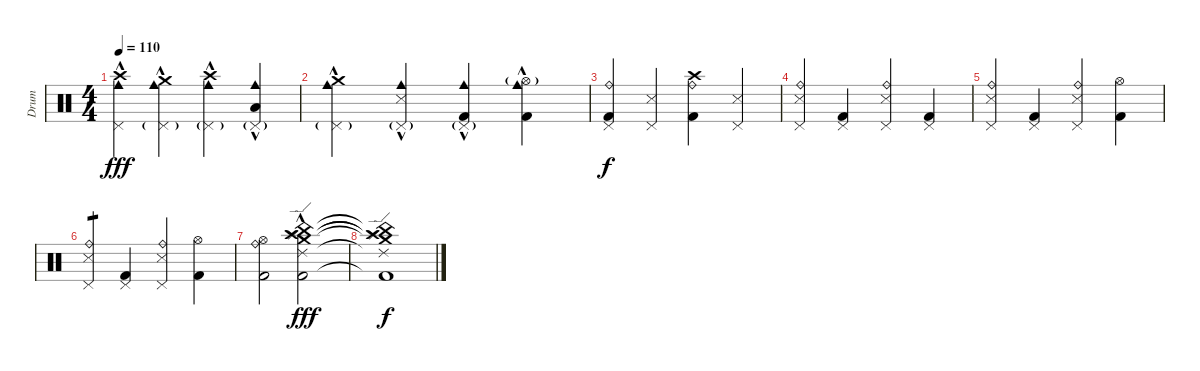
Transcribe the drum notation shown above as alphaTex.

\track ("Drum" "Drum") {instrument percussion}
\staff {score}
\articulation defaults
\ts (4 4)
\tempo 110
\clef neutral
\ks c
("Pedal Hi-Hat (hit)" "Cowbell medium (hit)"{hac} "Crash high (hit)").4{dy fff} ("Pedal Hi-Hat (hit)"{g} "Cowbell medium (hit)"{hac} "Crash medium (hit)").4 ("Pedal Hi-Hat (hit)"{g} "Cowbell medium (hit)"{hac} "Crash high (hit)").4 ("Pedal Hi-Hat (hit)"{g} "Cowbell medium (hit)"{hac} "Low Tom (hit)").4 |
("Pedal Hi-Hat (hit)"{g} "Cowbell medium (hit)"{hac} "Crash medium (hit)").4 ("Pedal Hi-Hat (hit)"{g} "Cowbell medium (hit)"{hac} "Snare (side stick) 3"{hac}).4 ("Pedal Hi-Hat (hit)"{g} "Cowbell medium (hit)"{hac} "Kick (hit) 2").4 ("Hi-Hat (open)"{g} "Cowbell medium (hit)"{hac} "Kick (hit) 2").4 |
("Pedal Hi-Hat (hit)" "Kick (hit) 2" "Ride (bell)").4{dy f} ("Pedal Hi-Hat (hit)" "Snare (side stick) 3").4 ("Crash high (hit)" "Kick (hit) 2" "Ride (bell)").4 ("Pedal Hi-Hat (hit)" "Snare (side stick) 3").4 |
("Pedal Hi-Hat (hit)" "Snare (side stick) 3" "Ride (bell)").4 ("Pedal Hi-Hat (hit)" "Kick (hit) 2").4 ("Pedal Hi-Hat (hit)" "Snare (side stick) 3" "Ride (bell)").4 ("Pedal Hi-Hat (hit)" "Kick (hit) 2").4 |
("Pedal Hi-Hat (hit)" "Snare (side stick) 3" "Ride (bell)").4 ("Pedal Hi-Hat (hit)" "Kick (hit) 2").4 ("Pedal Hi-Hat (hit)" "Snare (side stick) 3" "Ride (bell)").4 ("Hi-Hat (open)" "Kick (hit) 2").4 |
("Pedal Hi-Hat (hit)" "Snare (side stick) 3" "Ride (bell)").4{tp 1} ("Pedal Hi-Hat (hit)" "Kick (hit) 2").4 ("Pedal Hi-Hat (hit)" "Snare (side stick) 3" "Ride (bell)").4 ("Hi-Hat (open)" "Kick (hit) 2").4 |
("Hi-Hat (open)" "Kick (hit) 2" "Ride (bell)").2 ("Splash (hit)"{hac} "China (hit)"{hac} "Crash medium (hit)"{hac} "Ride (edge) 2"{hac} "Crash high (hit)"{hac} "Kick (hit) 2"{hac}).2{dy fff} |
("Splash (hit)"{t} "China (hit)"{t} "Crash medium (hit)"{t} "Ride (edge) 2"{t} "Crash high (hit)"{t} "Kick (hit) 2"{t}).1{dy f}
